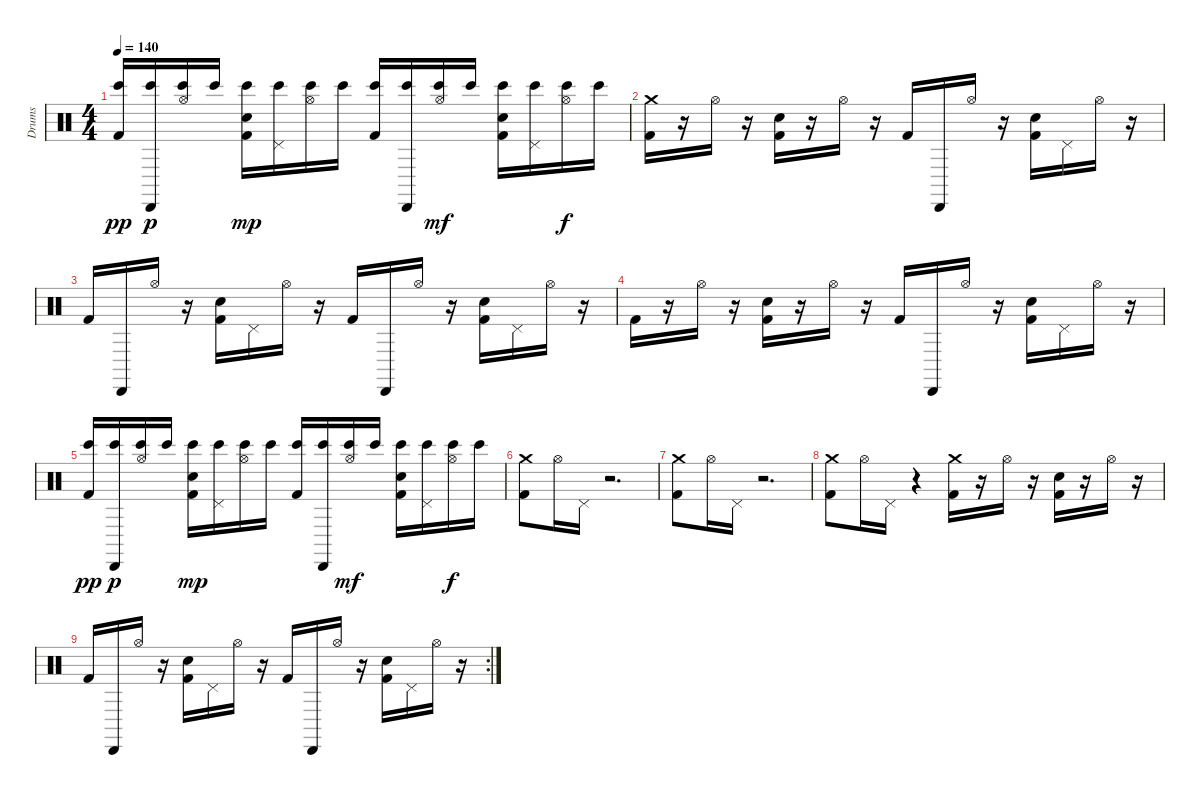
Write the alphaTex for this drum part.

\track ("Drums" "Drums") {instrument percussion}
\staff {score}
\articulation defaults
\ts (4 4)
\tempo 140
\clef neutral
\ks c
("Kick (hit) 2" "Bongo High (hit)").16{dy pp} ("Cabasa (hit)" "Bongo High (hit)").16{dy p} ("Hi-Hat (open)" "Bongo High (hit)").16 "Bongo High (hit)".16 ("Bongo High (hit)" "Hand Clap (hit)" "Kick (hit) 2").16{dy mp} ("Bongo High (hit)" "Pedal Hi-Hat (hit)").16 ("Bongo High (hit)" "Hi-Hat (open)").16 "Bongo High (hit)".16 ("Bongo High (hit)" "Kick (hit) 2").16 ("Bongo High (hit)" "Cabasa (hit)").16 ("Hi-Hat (open)" "Bongo High (hit)").16{dy mf} "Bongo High (hit)".16 ("Kick (hit) 2" "Hand Clap (hit)" "Bongo High (hit)").16 ("Pedal Hi-Hat (hit)" "Bongo High (hit)").16 ("Bongo High (hit)" "Hi-Hat (open)").16{dy f} "Bongo High (hit)".16 |
("Kick (hit) 2" "Crash medium (hit)").16 r.16 "Hi-Hat (open)".16 r.16 ("Kick (hit) 2" "Hand Clap (hit)").16 r.16 "Hi-Hat (open)".16 r.16 "Kick (hit) 2".16 "Cabasa (hit)".16 "Hi-Hat (open)".16 r.16 ("Kick (hit) 2" "Hand Clap (hit)").16 "Pedal Hi-Hat (hit)".16 "Hi-Hat (open)".16 r.16 |
"Kick (hit) 2".16 "Cabasa (hit)".16 "Hi-Hat (open)".16 r.16 ("Hand Clap (hit)" "Kick (hit) 2").16 "Pedal Hi-Hat (hit)".16 "Hi-Hat (open)".16 r.16 "Kick (hit) 2".16 "Cabasa (hit)".16 "Hi-Hat (open)".16 r.16 ("Kick (hit) 2" "Hand Clap (hit)").16 "Pedal Hi-Hat (hit)".16 "Hi-Hat (open)".16 r.16 |
"Kick (hit) 2".16 r.16 "Hi-Hat (open)".16 r.16 ("Kick (hit) 2" "Hand Clap (hit)").16 r.16 "Hi-Hat (open)".16 r.16 "Kick (hit) 2".16 "Cabasa (hit)".16 "Hi-Hat (open)".16 r.16 ("Kick (hit) 2" "Hand Clap (hit)").16 "Pedal Hi-Hat (hit)".16 "Hi-Hat (open)".16 r.16 |
("Bongo High (hit)" "Kick (hit) 2").16{dy pp} ("Bongo High (hit)" "Cabasa (hit)").16{dy p} ("Hi-Hat (open)" "Bongo High (hit)").16 "Bongo High (hit)".16 ("Kick (hit) 2" "Hand Clap (hit)" "Bongo High (hit)").16{dy mp} ("Bongo High (hit)" "Pedal Hi-Hat (hit)").16 ("Bongo High (hit)" "Hi-Hat (open)").16 "Bongo High (hit)".16 ("Kick (hit) 2" "Bongo High (hit)").16 ("Cabasa (hit)" "Bongo High (hit)").16 ("Hi-Hat (open)" "Bongo High (hit)").16{dy mf} "Bongo High (hit)".16 ("Kick (hit) 2" "Hand Clap (hit)" "Bongo High (hit)").16 ("Pedal Hi-Hat (hit)" "Bongo High (hit)").16 ("Hi-Hat (open)" "Bongo High (hit)").16{dy f} "Bongo High (hit)".16 |
("Crash medium (hit)" "Kick (hit) 2").8 "Hi-Hat (open)".16 "Pedal Hi-Hat (hit)".16 r.2{d} |
("Crash medium (hit)" "Kick (hit) 2").8 "Hi-Hat (open)".16 "Pedal Hi-Hat (hit)".16 r.2{d} |
("Crash medium (hit)" "Kick (hit) 2").8 "Hi-Hat (open)".16 "Pedal Hi-Hat (hit)".16 r.4 ("Kick (hit) 2" "Crash medium (hit)").16 r.16 "Hi-Hat (open)".16 r.16 ("Hand Clap (hit)" "Kick (hit) 2").16 r.16 "Hi-Hat (open)".16 r.16 |
\rc 2 "Kick (hit) 2".16 "Cabasa (hit)".16 "Hi-Hat (open)".16
r.16 ("Kick (hit) 2" "Hand Clap (hit)").16 "Pedal Hi-Hat (hit)".16 "Hi-Hat (open)".16 r.16 "Kick (hit) 2".16 "Cabasa (hit)".16 "Hi-Hat (open)".16 r.16 ("Hand Clap (hit)" "Kick (hit) 2").16 "Pedal Hi-Hat (hit)".16 "Hi-Hat (open)".16 r.16
